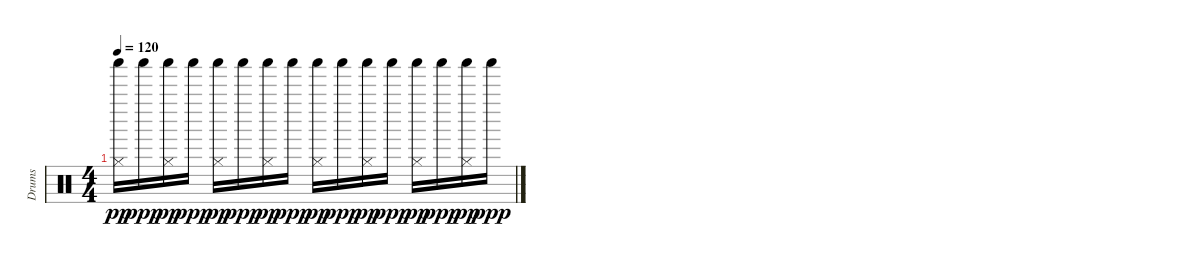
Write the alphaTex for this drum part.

\track ("Drums" "Drums") {instrument percussion}
\staff {score}
\articulation defaults
\ts (4 4)
\tempo 120
\clef neutral
\ks c
("Shaker (hit)" "Hi-Hat (closed)").16{dy pp} "Shaker (hit)".16{dy ppp} ("Shaker (hit)" "Hi-Hat (closed)").16{dy pp} "Shaker (hit)".16{dy ppp} ("Shaker (hit)" "Hi-Hat (closed)").16{dy pp} "Shaker (hit)".16{dy ppp} ("Shaker (hit)" "Hi-Hat (closed)").16{dy pp} "Shaker (hit)".16{dy ppp} ("Shaker (hit)" "Hi-Hat (closed)").16{dy pp} "Shaker (hit)".16{dy ppp} ("Shaker (hit)" "Hi-Hat (closed)").16{dy pp} "Shaker (hit)".16{dy ppp} ("Shaker (hit)" "Hi-Hat (closed)").16{dy pp} "Shaker (hit)".16{dy ppp} ("Shaker (hit)" "Hi-Hat (closed)").16{dy pp} "Shaker (hit)".16{dy ppp}
